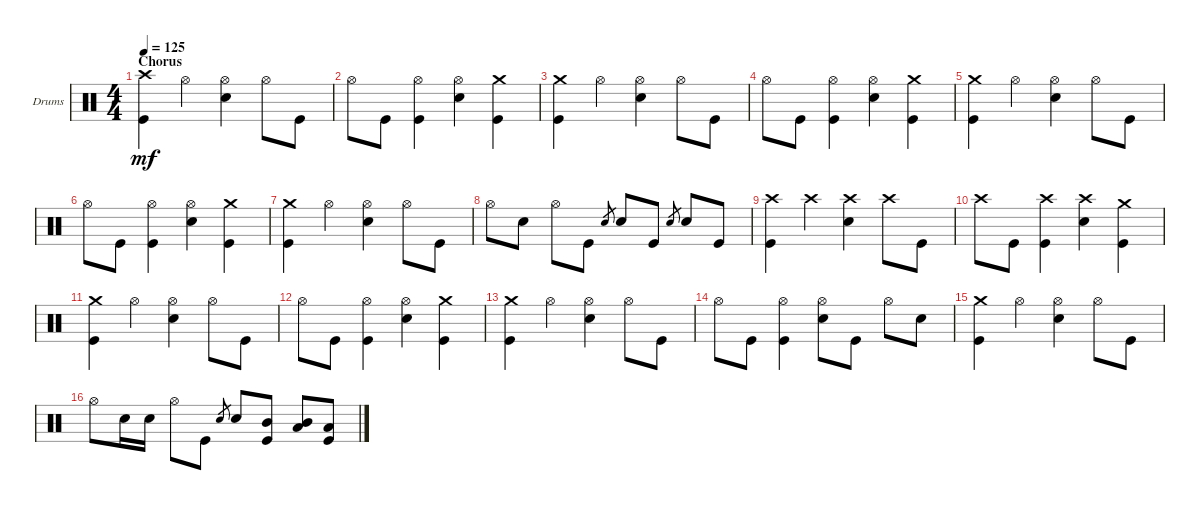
\bracketExtendMode groupsimilarinstruments
\firstSystemTrackNameOrientation horizontal
\otherSystemsTrackNameOrientation horizontal
\track ("Drums (chad ...)" "Drums") {instrument percussion}
\staff {score}
\articulation defaults
\ts (4 4)
\section ("" "Chorus")
\tempo 125
\clef neutral
\ks c
("Kick (hit)" "Crash high (hit)").4{dy mf} "Hi-Hat (open)".4 ("Hi-Hat (open)" "Snare (hit) 2").4 "Hi-Hat (open)".8 "Kick (hit)".8 |
"Hi-Hat (open)".8 "Kick (hit)".8 ("Kick (hit)" "Hi-Hat (open)").4 ("Snare (hit) 2" "Hi-Hat (open)").4 ("Crash medium (hit)" "Kick (hit)").4 |
("Kick (hit)" "Crash medium (hit)").4 "Hi-Hat (open)".4 ("Hi-Hat (open)" "Snare (hit) 2").4 "Hi-Hat (open)".8 "Kick (hit)".8 |
"Hi-Hat (open)".8 "Kick (hit)".8 ("Kick (hit)" "Hi-Hat (open)").4 ("Snare (hit) 2" "Hi-Hat (open)").4 ("Crash medium (hit)" "Kick (hit)").4 |
("Kick (hit)" "Crash medium (hit)").4 "Hi-Hat (open)".4 ("Hi-Hat (open)" "Snare (hit) 2").4 "Hi-Hat (open)".8 "Kick (hit)".8 |
"Hi-Hat (open)".8 "Kick (hit)".8 ("Kick (hit)" "Hi-Hat (open)").4 ("Snare (hit) 2" "Hi-Hat (open)").4 ("Kick (hit)" "Crash medium (hit)").4 |
("Crash medium (hit)" "Kick (hit)").4 "Hi-Hat (open)".4 ("Hi-Hat (open)" "Snare (hit) 2").4 "Hi-Hat (open)".8 "Kick (hit)".8 |
"Hi-Hat (open)".8 "Snare (hit) 2".8 "Hi-Hat (open)".8 "Kick (hit)".8 "Snare (hit) 2".8{gr} "Snare (hit) 2".8 "Kick (hit)".8 "Snare (hit) 2".8{gr} "Snare (hit) 2".8 "Kick (hit)".8 |
("Kick (hit)" "Crash high (hit)").4 "Crash high (hit)".4 ("Snare (hit) 2" "Crash high (hit)").4 "Crash high (hit)".8 "Kick (hit)".8 |
"Crash high (hit)".8 "Kick (hit)".8 ("Kick (hit)" "Crash high (hit)").4 ("Snare (hit) 2" "Crash high (hit)").4 ("Crash medium (hit)" "Kick (hit)").4 |
("Kick (hit)" "Crash medium (hit)").4 "Hi-Hat (open)".4 ("Hi-Hat (open)" "Snare (hit) 2").4 "Hi-Hat (open)".8 "Kick (hit)".8 |
"Hi-Hat (open)".8 "Kick (hit)".8 ("Kick (hit)" "Hi-Hat (open)").4 ("Snare (hit) 2" "Hi-Hat (open)").4 ("Crash medium (hit)" "Kick (hit)").4 |
("Kick (hit)" "Crash medium (hit)").4 "Hi-Hat (open)".4 ("Hi-Hat (open)" "Snare (hit) 2").4 "Hi-Hat (open)".8 "Kick (hit)".8 |
"Hi-Hat (open)".8 "Kick (hit)".8 ("Kick (hit)" "Hi-Hat (open)").4 ("Snare (hit) 2" "Hi-Hat (open)").8 "Kick (hit)".8 "Hi-Hat (open)".8 "Snare (hit) 2".8 |
("Crash medium (hit)" "Kick (hit)").4 "Hi-Hat (open)".4 ("Hi-Hat (open)" "Snare (hit) 2").4 "Hi-Hat (open)".8 "Kick (hit)".8 |
"Hi-Hat (open)".8 "Snare (hit) 2".16 "Snare (hit) 2".16 "Hi-Hat (open)".8 "Kick (hit)".8 "Snare (hit) 2".8{gr} "Snare (hit) 2".8 ("Mid Tom (hit)" "Kick (hit)").8 ("Low Tom (hit)" "Mid Tom (hit)").8 ("Low Tom (hit)" "Kick (hit)").8
